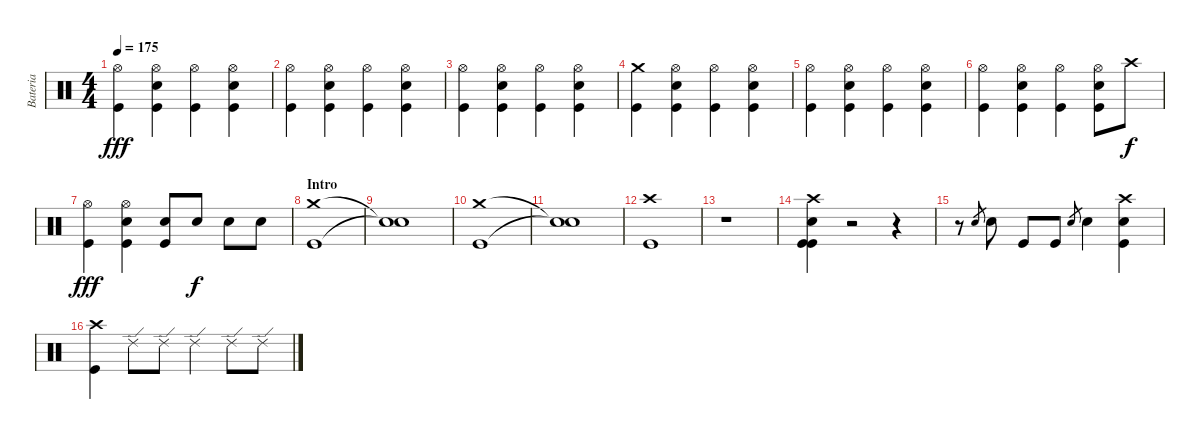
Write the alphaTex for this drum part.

\track ("Bateria" "Bateria") {instrument percussion}
\staff {score}
\articulation defaults
\ts (4 4)
\tempo 175
\clef neutral
\ks c
("Hi-Hat (open)" "Kick (hit)").4{dy fff} ("Hi-Hat (open)" "Electric Snare (hit)" "Kick (hit)").4 ("Hi-Hat (open)" "Kick (hit)").4 ("Hi-Hat (open)" "Electric Snare (hit)" "Kick (hit)").4 |
("Hi-Hat (open)" "Kick (hit)").4 ("Hi-Hat (open)" "Electric Snare (hit)" "Kick (hit)").4 ("Hi-Hat (open)" "Kick (hit)").4 ("Hi-Hat (open)" "Electric Snare (hit)" "Kick (hit)").4 |
("Hi-Hat (open)" "Kick (hit)").4 ("Hi-Hat (open)" "Electric Snare (hit)" "Kick (hit)").4 ("Hi-Hat (open)" "Kick (hit)").4 ("Hi-Hat (open)" "Electric Snare (hit)" "Kick (hit)").4 |
("Crash medium (hit)" "Kick (hit)").4 ("Hi-Hat (open)" "Electric Snare (hit)" "Kick (hit)").4 ("Hi-Hat (open)" "Kick (hit)").4 ("Hi-Hat (open)" "Electric Snare (hit)" "Kick (hit)").4 |
("Hi-Hat (open)" "Kick (hit)").4 ("Hi-Hat (open)" "Electric Snare (hit)" "Kick (hit)").4 ("Hi-Hat (open)" "Kick (hit)").4 ("Hi-Hat (open)" "Electric Snare (hit)" "Kick (hit)").4 |
("Hi-Hat (open)" "Kick (hit)").4 ("Hi-Hat (open)" "Electric Snare (hit)" "Kick (hit)").4 ("Hi-Hat (open)" "Kick (hit)").4 ("Hi-Hat (open)" "Electric Snare (hit)" "Kick (hit)").8 "Crash high (hit)".8{dy f} |
("Hi-Hat (open)" "Kick (hit)").4{dy fff} ("Hi-Hat (open)" "Electric Snare (hit)" "Kick (hit)").4 ("Electric Snare (hit)" "Kick (hit)").8 "Electric Snare (hit)".8{dy f} "Electric Snare (hit)".8 "Electric Snare (hit)".8 |
\section ("" "Intro")
("Crash medium (hit)" "Kick (hit)").1 |
("Snare (hit)"{t} "Snare (hit)"{t}).1 |
("Crash medium (hit)" "Kick (hit)").1 |
("Snare (hit)"{t} "Snare (hit)"{t}).1 |
("Crash high (hit)" "Kick (hit)").1 |
r.1 |
("Crash high (hit)" "Electric Snare (hit)" "Kick (hit)" "Kick (hit)").4 r.2 r.4 |
r.8 "Electric Snare (hit)".8{gr} "Electric Snare (hit)".8 "Kick (hit)".8 "Kick (hit)".8 "Electric Snare (hit)".8{gr} "Electric Snare (hit)".4 ("Crash high (hit)" "Electric Snare (hit)" "Kick (hit)").4 |
("Crash high (hit)" "Kick (hit)").4 "Ride (edge) 2".8 "Ride (edge) 2".8 "Ride (edge) 2".4 "Ride (edge) 2".8 "Ride (edge) 2".8
